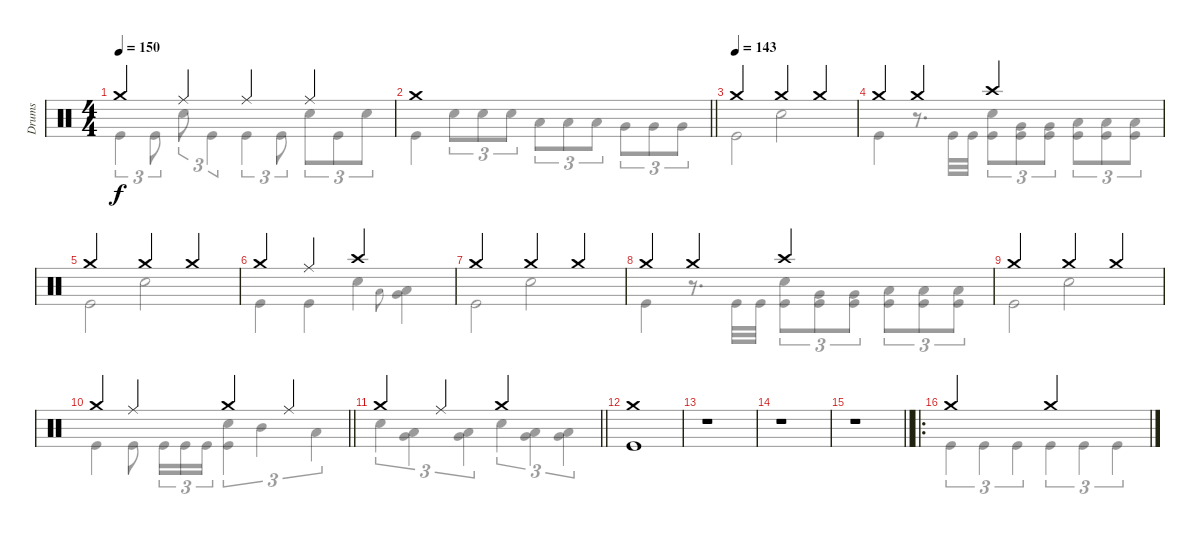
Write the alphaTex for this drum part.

\track ("Drums" "Drums") {instrument percussion}
\staff {score}
\articulation defaults
\voice
\ts (4 4)
\tempo 150
\clef neutral
\ks c "Crash medium (hit)".4{dy f} "Ride (middle)".4 "Ride (middle)".4 "Ride (middle)".4
|
\barLineRight lightlight "Crash medium (hit)".1
|
\section ("" "")
\tempo (143)
"Crash medium (hit)".2 "Crash medium (hit)".4 "Crash medium (hit)".4 |
"Crash medium (hit)".4 "Crash medium (hit)".4 "Crash high (hit)".2 |
"Crash medium (hit)".2 "Crash medium (hit)".4 "Crash medium (hit)".4 |
"Crash medium (hit)".4 "Ride (middle)".4 "Crash high (hit)".2 |
"Crash medium (hit)".2 "Crash medium (hit)".4 "Crash medium (hit)".4 |
"Crash medium (hit)".4 "Crash medium (hit)".4 "Crash high (hit)".2 |
"Crash medium (hit)".2 "Crash medium (hit)".4 "Crash medium (hit)".4 |
\barLineRight lightlight "Crash medium (hit)".4 "Ride (middle)".4 "Crash medium (hit)".4 "Ride (middle)".4
|
\section ("" "")
\barLineRight lightlight "Crash medium (hit)".4 "Ride (middle)".4 "Crash medium (hit)".2
|
\section ("" "")
("Crash medium (hit)" "Kick (hit)").1 |
r.1 |
r.1 |
\barLineRight lightlight
r.1 |
\ro
\section ("" "")
"Crash medium (hit)".2 "Crash medium (hit)".2
\voice
\clef neutral
\ottava regular
\simile none
\ks c "Kick (hit)".4{tu (3 2) dy f} "Kick (hit)".8{tu (3 2)} "Electric Snare (hit)".8{tu (3 2)} "Kick (hit)".4{tu (3 2)} "Kick (hit)".4{tu (3 2)} "Kick (hit)".8{tu (3 2)} "Electric Snare (hit)".8{tu (3 2)} "Kick (hit)".8{tu (3 2)} "Electric Snare (hit)".8{tu (3 2)}
|
\barLineRight lightlight "Kick (hit)".4 "Electric Snare (hit)".8{tu (3 2)} "Electric Snare (hit)".8{tu (3 2)} "Electric Snare (hit)".8{tu (3 2)} "Low Tom (hit)".8{tu (3 2)} "Low Tom (hit)".8{tu (3 2)} "Low Tom (hit)".8{tu (3 2)} "Very Low Tom (hit)".8{tu (3 2)} "Very Low Tom (hit)".8{tu (3 2)} "Very Low Tom (hit)".8{tu (3 2)}
|
"Kick (hit)".2 "Electric Snare (hit)".2 |
"Kick (hit)".4 r.8{d} "Kick (hit)".32 "Kick (hit)".32 ("Electric Snare (hit)" "Kick (hit)").8{tu (3 2)} ("Very Low Tom (hit)" "Kick (hit)").8{tu (3 2)} ("Very Low Tom (hit)" "Kick (hit)").8{tu (3 2)} ("Low Floor Tom (hit)" "Kick (hit)").8{tu (3 2)} ("Low Floor Tom (hit)" "Kick (hit)").8{tu (3 2)} ("Low Floor Tom (hit)" "Kick (hit)").8{tu (3 2)} |
"Kick (hit)".2 "Electric Snare (hit)".2 |
"Kick (hit)".4 "Kick (hit)".4 "Electric Snare (hit)".4 "Low Tom (hit)".8{gr onbeat} ("Very Low Tom (hit)" "Low Floor Tom (hit)").4 |
"Kick (hit)".2 "Electric Snare (hit)".2 |
"Kick (hit)".4 r.8{d} "Kick (hit)".32 "Kick (hit)".32 ("Electric Snare (hit)" "Kick (hit)").8{tu (3 2)} ("Very Low Tom (hit)" "Kick (hit)").8{tu (3 2)} ("Very Low Tom (hit)" "Kick (hit)").8{tu (3 2)} ("Low Floor Tom (hit)" "Kick (hit)").8{tu (3 2)} ("Low Floor Tom (hit)" "Kick (hit)").8{tu (3 2)} ("Low Floor Tom (hit)" "Kick (hit)").8{tu (3 2)} |
"Kick (hit)".2 "Electric Snare (hit)".2 |
\barLineRight lightlight "Kick (hit)".4 "Kick (hit)".8 "Kick (hit)".16{tu (3 2)} "Kick (hit)".16{tu (3 2)} "Kick (hit)".16{tu (3 2)}
("Electric Snare (hit)" "Kick (hit)").4{tu (3 2)} "Mid Tom (hit)".4{tu (3 2)} "Low Tom (hit)".4{tu (3 2)} |
\barLineRight lightlight "Electric Snare (hit)".4{tu (3 2)}
("Low Tom (hit)" "Very Low Tom (hit)").4{tu (3 2)} ("Low Tom (hit)" "Very Low Tom (hit)").4{tu (3 2)} "Electric Snare (hit)".4{tu (3 2)} ("Very Low Tom (hit)" "Low Floor Tom (hit)").4{tu (3 2)} ("Very Low Tom (hit)" "Low Floor Tom (hit)").4{tu (3 2)} |
|
|
|
\barLineRight lightlight
|
"Kick (hit)".4{tu (3 2)} "Kick (hit)".4{tu (3 2)} "Kick (hit)".4{tu (3 2)} "Kick (hit)".4{tu (3 2)} "Kick (hit)".4{tu (3 2)} "Kick (hit)".4{tu (3 2)}
